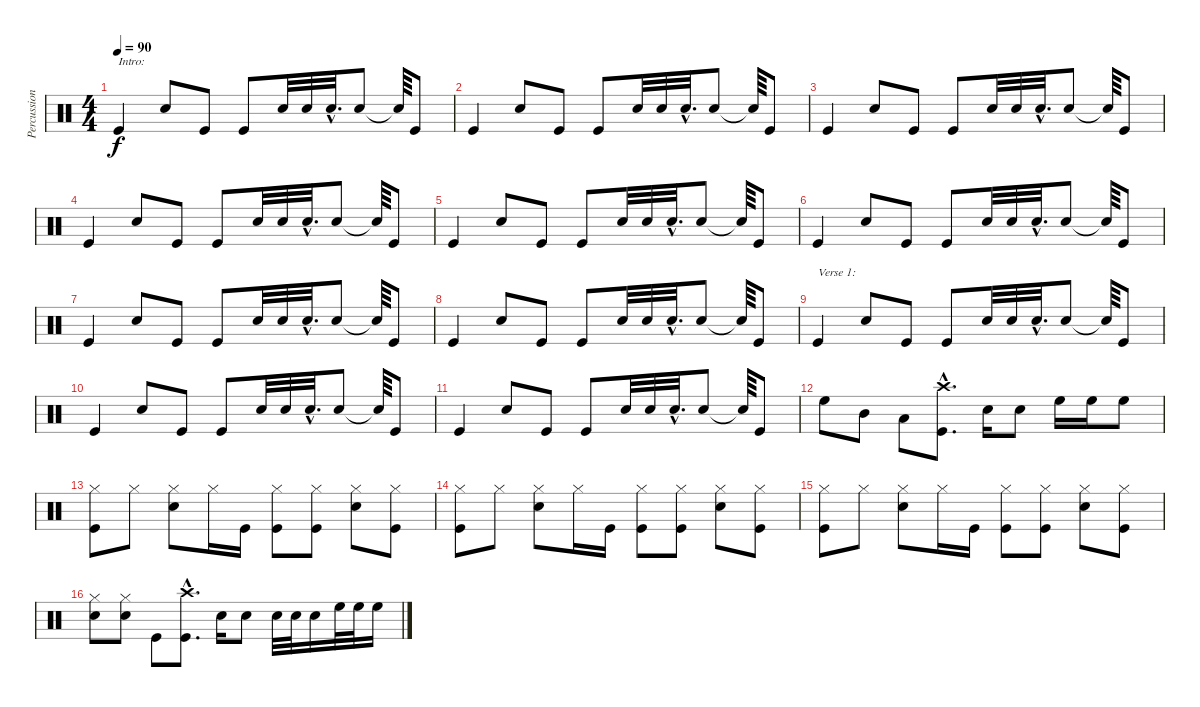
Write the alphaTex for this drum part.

\track ("Percussion" "Percussion") {instrument percussion}
\staff {score}
\articulation defaults
\ts (4 4)
\tempo 90
\clef neutral
\ks c "Kick (hit)".4{txt "Intro:" dy f volume 12} "Snare (hit) 2".8 "Kick (hit)".8 "Kick (hit)".8 "Snare (hit) 2".32 "Snare (hit) 2".32 "Snare (hit) 2"{hac}.32{d} "Snare (hit) 2".8 "Snare (hit)"{t}.64 "Kick (hit)".8
|
"Kick (hit)".4 "Snare (hit) 2".8 "Kick (hit)".8 "Kick (hit)".8 "Snare (hit) 2".32 "Snare (hit) 2".32 "Snare (hit) 2"{hac}.32{d} "Snare (hit) 2".8 "Snare (hit)"{t}.64 "Kick (hit)".8 |
"Kick (hit)".4 "Snare (hit) 2".8 "Kick (hit)".8 "Kick (hit)".8 "Snare (hit) 2".32 "Snare (hit) 2".32 "Snare (hit) 2"{hac}.32{d} "Snare (hit) 2".8 "Snare (hit)"{t}.64 "Kick (hit)".8 |
"Kick (hit)".4 "Snare (hit) 2".8 "Kick (hit)".8 "Kick (hit)".8 "Snare (hit) 2".32 "Snare (hit) 2".32 "Snare (hit) 2"{hac}.32{d} "Snare (hit) 2".8 "Snare (hit)"{t}.64 "Kick (hit)".8 |
"Kick (hit)".4 "Snare (hit) 2".8 "Kick (hit)".8 "Kick (hit)".8 "Snare (hit) 2".32 "Snare (hit) 2".32 "Snare (hit) 2"{hac}.32{d} "Snare (hit) 2".8 "Snare (hit)"{t}.64 "Kick (hit)".8 |
"Kick (hit)".4 "Snare (hit) 2".8 "Kick (hit)".8 "Kick (hit)".8 "Snare (hit) 2".32 "Snare (hit) 2".32 "Snare (hit) 2"{hac}.32{d} "Snare (hit) 2".8 "Snare (hit)"{t}.64 "Kick (hit)".8 |
"Kick (hit)".4 "Snare (hit) 2".8 "Kick (hit)".8 "Kick (hit)".8 "Snare (hit) 2".32 "Snare (hit) 2".32 "Snare (hit) 2"{hac}.32{d} "Snare (hit) 2".8 "Snare (hit)"{t}.64 "Kick (hit)".8 |
"Kick (hit)".4 "Snare (hit) 2".8 "Kick (hit)".8 "Kick (hit)".8 "Snare (hit) 2".32 "Snare (hit) 2".32 "Snare (hit) 2"{hac}.32{d} "Snare (hit) 2".8 "Snare (hit)"{t}.64 "Kick (hit)".8 |
"Kick (hit)".4{txt "Verse 1:"} "Snare (hit) 2".8 "Kick (hit)".8 "Kick (hit)".8 "Snare (hit) 2".32 "Snare (hit) 2".32 "Snare (hit) 2"{hac}.32{d} "Snare (hit) 2".8 "Snare (hit)"{t}.64 "Kick (hit)".8 |
"Kick (hit)".4 "Snare (hit) 2".8 "Kick (hit)".8 "Kick (hit)".8 "Snare (hit) 2".32 "Snare (hit) 2".32 "Snare (hit) 2"{hac}.32{d} "Snare (hit) 2".8 "Snare (hit)"{t}.64 "Kick (hit)".8 |
"Kick (hit)".4 "Snare (hit) 2".8 "Kick (hit)".8 "Kick (hit)".8 "Snare (hit) 2".32 "Snare (hit) 2".32 "Snare (hit) 2"{hac}.32{d} "Snare (hit) 2".8 "Snare (hit)"{t}.64 "Kick (hit)".8 |
"High Floor Tom (hit)".8 "Mid Tom (hit)".8 "Low Tom (hit)".8 ("Crash high (hit)"{hac} "Kick (hit)"{hac}).8{d} "Snare (hit) 2".16 "Snare (hit) 2".8 "High Floor Tom (hit)".16 "High Floor Tom (hit)".16 "High Floor Tom (hit)".8 |
("Hi-Hat (closed)" "Kick (hit)").8 "Hi-Hat (closed)".8 ("Hi-Hat (closed)" "Snare (hit) 2").8 "Hi-Hat (closed)".16 "Kick (hit)".16 ("Hi-Hat (closed)" "Kick (hit)").8 ("Hi-Hat (closed)" "Kick (hit)").8 ("Hi-Hat (closed)" "Snare (hit) 2").8 ("Hi-Hat (closed)" "Kick (hit)").8 |
("Hi-Hat (closed)" "Kick (hit)").8 "Hi-Hat (closed)".8 ("Hi-Hat (closed)" "Snare (hit) 2").8 "Hi-Hat (closed)".16 "Kick (hit)".16 ("Hi-Hat (closed)" "Kick (hit)").8 ("Hi-Hat (closed)" "Kick (hit)").8 ("Hi-Hat (closed)" "Snare (hit) 2").8 ("Hi-Hat (closed)" "Kick (hit)").8 |
("Hi-Hat (closed)" "Kick (hit)").8 "Hi-Hat (closed)".8 ("Hi-Hat (closed)" "Snare (hit) 2").8 "Hi-Hat (closed)".16 "Kick (hit)".16 ("Hi-Hat (closed)" "Kick (hit)").8 ("Hi-Hat (closed)" "Kick (hit)").8 ("Hi-Hat (closed)" "Snare (hit) 2").8 ("Hi-Hat (closed)" "Kick (hit)").8 |
("Hi-Hat (closed)" "Snare (hit) 2").8 ("Hi-Hat (closed)" "Snare (hit) 2").8 "Kick (hit)".8 ("Crash high (hit)"{hac} "Kick (hit)"{hac}).8{d} "Snare (hit) 2".16 "Snare (hit) 2".8 "Snare (hit) 2".32 "Snare (hit) 2".32 "Snare (hit) 2".16 "High Floor Tom (hit)".32 "High Floor Tom (hit)".32 "High Floor Tom (hit)".16
